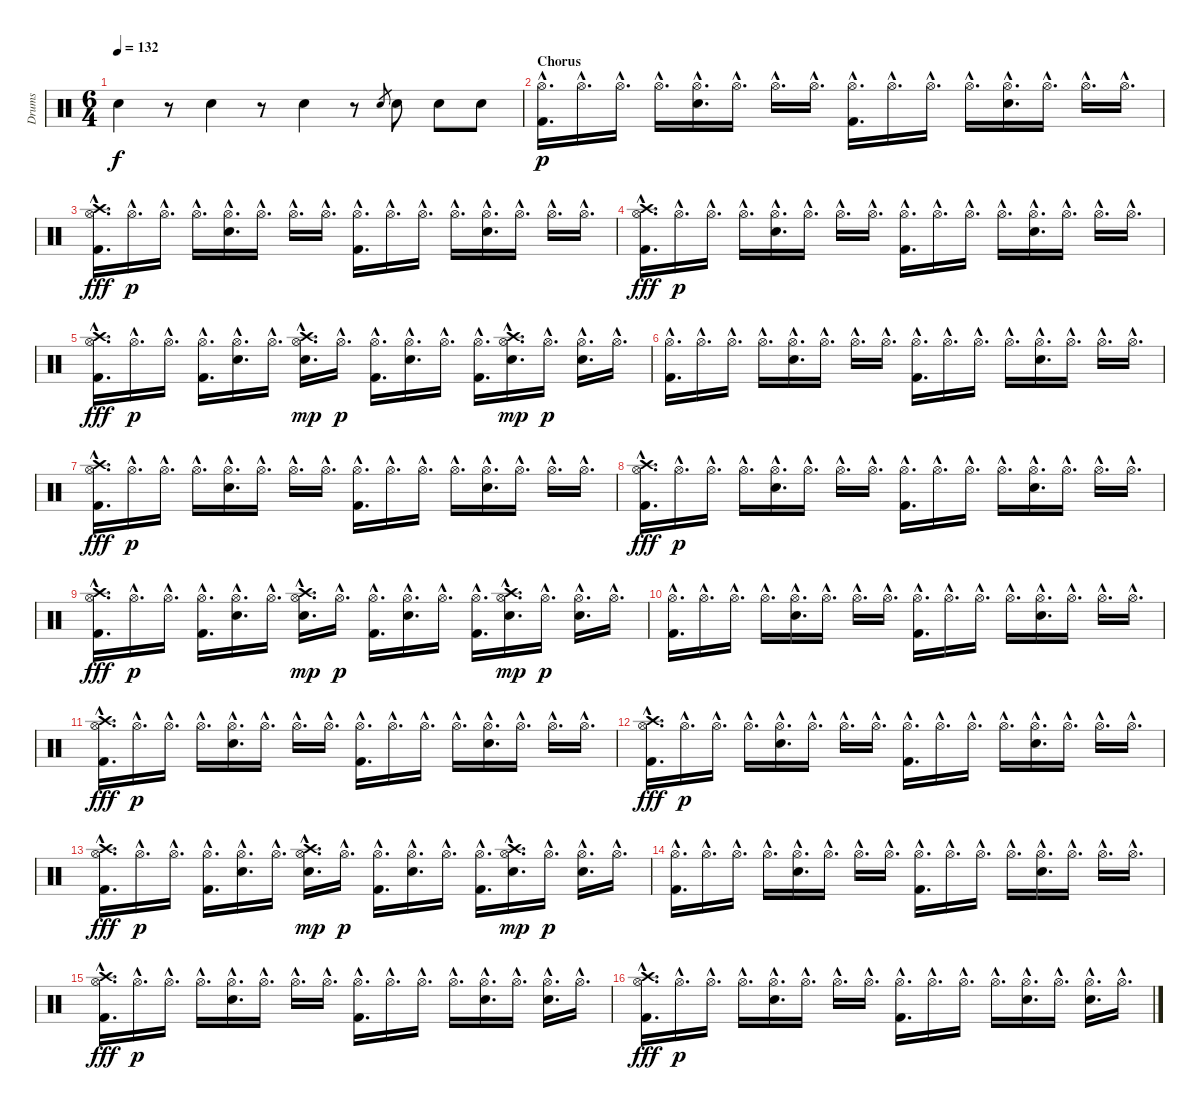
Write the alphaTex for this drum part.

\track ("Drums" "Drums") {instrument percussion}
\staff {score}
\articulation defaults
\ts (6 4)
\tempo 132
\clef neutral
\ks c "Electric Snare (hit)".4{dy f}
r.8 "Electric Snare (hit)".4 r.8 "Electric Snare (hit)".4 r.8 "Electric Snare (hit)".8{gr} "Electric Snare (hit)".8 "Snare (hit) 2".8 "Electric Snare (hit)".8 |
\section ("" "Chorus")
("Kick (hit) 2"{hac} "Hi-Hat (open)"{hac}).16{d dy p} "Hi-Hat (open)"{hac}.16{d} "Hi-Hat (open)"{hac}.16{d} "Hi-Hat (open)"{hac}.16{d} ("Electric Snare (hit)"{hac} "Hi-Hat (open)"{hac}).16{d} "Hi-Hat (open)"{hac}.16{d} "Hi-Hat (open)"{hac}.16{d} "Hi-Hat (open)"{hac}.16{d} ("Kick (hit) 2"{hac} "Hi-Hat (open)"{hac}).16{d} "Hi-Hat (open)"{hac}.16{d} "Hi-Hat (open)"{hac}.16{d} "Hi-Hat (open)"{hac}.16{d} ("Electric Snare (hit)"{hac} "Hi-Hat (open)"{hac}).16{d} "Hi-Hat (open)"{hac}.16{d} "Hi-Hat (open)"{hac}.16{d} "Hi-Hat (open)"{hac}.16{d} |
("Crash high (hit)"{hac} "Hi-Hat (open)"{hac} "Kick (hit) 2"{hac}).16{d dy fff} "Hi-Hat (open)"{hac}.16{d dy p} "Hi-Hat (open)"{hac}.16{d} "Hi-Hat (open)"{hac}.16{d} ("Electric Snare (hit)"{hac} "Hi-Hat (open)"{hac}).16{d} "Hi-Hat (open)"{hac}.16{d} "Hi-Hat (open)"{hac}.16{d} "Hi-Hat (open)"{hac}.16{d} ("Kick (hit) 2"{hac} "Hi-Hat (open)"{hac}).16{d} "Hi-Hat (open)"{hac}.16{d} "Hi-Hat (open)"{hac}.16{d} "Hi-Hat (open)"{hac}.16{d} ("Electric Snare (hit)"{hac} "Hi-Hat (open)"{hac}).16{d} "Hi-Hat (open)"{hac}.16{d} "Hi-Hat (open)"{hac}.16{d} "Hi-Hat (open)"{hac}.16{d} |
("Crash high (hit)"{hac} "Hi-Hat (open)"{hac} "Kick (hit) 2"{hac}).16{d dy fff} "Hi-Hat (open)"{hac}.16{d dy p} "Hi-Hat (open)"{hac}.16{d} "Hi-Hat (open)"{hac}.16{d} ("Electric Snare (hit)"{hac} "Hi-Hat (open)"{hac}).16{d} "Hi-Hat (open)"{hac}.16{d} "Hi-Hat (open)"{hac}.16{d} "Hi-Hat (open)"{hac}.16{d} ("Kick (hit) 2"{hac} "Hi-Hat (open)"{hac}).16{d} "Hi-Hat (open)"{hac}.16{d} "Hi-Hat (open)"{hac}.16{d} "Hi-Hat (open)"{hac}.16{d} ("Electric Snare (hit)"{hac} "Hi-Hat (open)"{hac}).16{d} "Hi-Hat (open)"{hac}.16{d} "Hi-Hat (open)"{hac}.16{d} "Hi-Hat (open)"{hac}.16{d} |
("Crash high (hit)"{hac} "Hi-Hat (open)"{hac} "Kick (hit) 2"{hac}).16{d dy fff} "Hi-Hat (open)"{hac}.16{d dy p} "Hi-Hat (open)"{hac}.16{d} ("Kick (hit) 2"{hac} "Hi-Hat (open)"{hac}).16{d} ("Electric Snare (hit)"{hac} "Hi-Hat (open)"{hac}).16{d} "Hi-Hat (open)"{hac}.16{d} ("Electric Snare (hit)"{hac} "Hi-Hat (open)"{hac} "Crash high (hit)"{hac}).16{d dy mp} "Hi-Hat (open)"{hac}.16{d dy p} ("Kick (hit) 2"{hac} "Hi-Hat (open)"{hac}).16{d} ("Electric Snare (hit)"{hac} "Hi-Hat (open)"{hac}).16{d} "Hi-Hat (open)"{hac}.16{d} ("Kick (hit) 2"{hac} "Hi-Hat (open)"{hac}).16{d} ("Electric Snare (hit)"{hac} "Hi-Hat (open)"{hac} "Crash high (hit)"{hac}).16{d dy mp} "Hi-Hat (open)"{hac}.16{d dy p} ("Electric Snare (hit)"{hac} "Hi-Hat (open)"{hac}).16{d} "Hi-Hat (open)"{hac}.16{d} |
("Kick (hit) 2"{hac} "Hi-Hat (open)"{hac}).16{d} "Hi-Hat (open)"{hac}.16{d} "Hi-Hat (open)"{hac}.16{d} "Hi-Hat (open)"{hac}.16{d} ("Electric Snare (hit)"{hac} "Hi-Hat (open)"{hac}).16{d} "Hi-Hat (open)"{hac}.16{d} "Hi-Hat (open)"{hac}.16{d} "Hi-Hat (open)"{hac}.16{d} ("Kick (hit) 2"{hac} "Hi-Hat (open)"{hac}).16{d} "Hi-Hat (open)"{hac}.16{d} "Hi-Hat (open)"{hac}.16{d} "Hi-Hat (open)"{hac}.16{d} ("Electric Snare (hit)"{hac} "Hi-Hat (open)"{hac}).16{d} "Hi-Hat (open)"{hac}.16{d} "Hi-Hat (open)"{hac}.16{d} "Hi-Hat (open)"{hac}.16{d} |
("Crash high (hit)"{hac} "Hi-Hat (open)"{hac} "Kick (hit) 2"{hac}).16{d dy fff} "Hi-Hat (open)"{hac}.16{d dy p} "Hi-Hat (open)"{hac}.16{d} "Hi-Hat (open)"{hac}.16{d} ("Electric Snare (hit)"{hac} "Hi-Hat (open)"{hac}).16{d} "Hi-Hat (open)"{hac}.16{d} "Hi-Hat (open)"{hac}.16{d} "Hi-Hat (open)"{hac}.16{d} ("Kick (hit) 2"{hac} "Hi-Hat (open)"{hac}).16{d} "Hi-Hat (open)"{hac}.16{d} "Hi-Hat (open)"{hac}.16{d} "Hi-Hat (open)"{hac}.16{d} ("Electric Snare (hit)"{hac} "Hi-Hat (open)"{hac}).16{d} "Hi-Hat (open)"{hac}.16{d} "Hi-Hat (open)"{hac}.16{d} "Hi-Hat (open)"{hac}.16{d} |
("Crash high (hit)"{hac} "Hi-Hat (open)"{hac} "Kick (hit) 2"{hac}).16{d dy fff} "Hi-Hat (open)"{hac}.16{d dy p} "Hi-Hat (open)"{hac}.16{d} "Hi-Hat (open)"{hac}.16{d} ("Electric Snare (hit)"{hac} "Hi-Hat (open)"{hac}).16{d} "Hi-Hat (open)"{hac}.16{d} "Hi-Hat (open)"{hac}.16{d} "Hi-Hat (open)"{hac}.16{d} ("Kick (hit) 2"{hac} "Hi-Hat (open)"{hac}).16{d} "Hi-Hat (open)"{hac}.16{d} "Hi-Hat (open)"{hac}.16{d} "Hi-Hat (open)"{hac}.16{d} ("Electric Snare (hit)"{hac} "Hi-Hat (open)"{hac}).16{d} "Hi-Hat (open)"{hac}.16{d} "Hi-Hat (open)"{hac}.16{d} "Hi-Hat (open)"{hac}.16{d} |
("Crash high (hit)"{hac} "Hi-Hat (open)"{hac} "Kick (hit) 2"{hac}).16{d dy fff} "Hi-Hat (open)"{hac}.16{d dy p} "Hi-Hat (open)"{hac}.16{d} ("Kick (hit) 2"{hac} "Hi-Hat (open)"{hac}).16{d} ("Electric Snare (hit)"{hac} "Hi-Hat (open)"{hac}).16{d} "Hi-Hat (open)"{hac}.16{d} ("Electric Snare (hit)"{hac} "Hi-Hat (open)"{hac} "Crash high (hit)"{hac}).16{d dy mp} "Hi-Hat (open)"{hac}.16{d dy p} ("Kick (hit) 2"{hac} "Hi-Hat (open)"{hac}).16{d} ("Electric Snare (hit)"{hac} "Hi-Hat (open)"{hac}).16{d} "Hi-Hat (open)"{hac}.16{d} ("Kick (hit) 2"{hac} "Hi-Hat (open)"{hac}).16{d} ("Electric Snare (hit)"{hac} "Hi-Hat (open)"{hac} "Crash high (hit)"{hac}).16{d dy mp} "Hi-Hat (open)"{hac}.16{d dy p} ("Electric Snare (hit)"{hac} "Hi-Hat (open)"{hac}).16{d} "Hi-Hat (open)"{hac}.16{d} |
("Kick (hit) 2"{hac} "Hi-Hat (open)"{hac}).16{d} "Hi-Hat (open)"{hac}.16{d} "Hi-Hat (open)"{hac}.16{d} "Hi-Hat (open)"{hac}.16{d} ("Electric Snare (hit)"{hac} "Hi-Hat (open)"{hac}).16{d} "Hi-Hat (open)"{hac}.16{d} "Hi-Hat (open)"{hac}.16{d} "Hi-Hat (open)"{hac}.16{d} ("Kick (hit) 2"{hac} "Hi-Hat (open)"{hac}).16{d} "Hi-Hat (open)"{hac}.16{d} "Hi-Hat (open)"{hac}.16{d} "Hi-Hat (open)"{hac}.16{d} ("Electric Snare (hit)"{hac} "Hi-Hat (open)"{hac}).16{d} "Hi-Hat (open)"{hac}.16{d} "Hi-Hat (open)"{hac}.16{d} "Hi-Hat (open)"{hac}.16{d} |
("Crash high (hit)"{hac} "Hi-Hat (open)"{hac} "Kick (hit) 2"{hac}).16{d dy fff} "Hi-Hat (open)"{hac}.16{d dy p} "Hi-Hat (open)"{hac}.16{d} "Hi-Hat (open)"{hac}.16{d} ("Electric Snare (hit)"{hac} "Hi-Hat (open)"{hac}).16{d} "Hi-Hat (open)"{hac}.16{d} "Hi-Hat (open)"{hac}.16{d} "Hi-Hat (open)"{hac}.16{d} ("Kick (hit) 2"{hac} "Hi-Hat (open)"{hac}).16{d} "Hi-Hat (open)"{hac}.16{d} "Hi-Hat (open)"{hac}.16{d} "Hi-Hat (open)"{hac}.16{d} ("Electric Snare (hit)"{hac} "Hi-Hat (open)"{hac}).16{d} "Hi-Hat (open)"{hac}.16{d} "Hi-Hat (open)"{hac}.16{d} "Hi-Hat (open)"{hac}.16{d} |
("Crash high (hit)"{hac} "Hi-Hat (open)"{hac} "Kick (hit) 2"{hac}).16{d dy fff} "Hi-Hat (open)"{hac}.16{d dy p} "Hi-Hat (open)"{hac}.16{d} "Hi-Hat (open)"{hac}.16{d} ("Electric Snare (hit)"{hac} "Hi-Hat (open)"{hac}).16{d} "Hi-Hat (open)"{hac}.16{d} "Hi-Hat (open)"{hac}.16{d} "Hi-Hat (open)"{hac}.16{d} ("Kick (hit) 2"{hac} "Hi-Hat (open)"{hac}).16{d} "Hi-Hat (open)"{hac}.16{d} "Hi-Hat (open)"{hac}.16{d} "Hi-Hat (open)"{hac}.16{d} ("Electric Snare (hit)"{hac} "Hi-Hat (open)"{hac}).16{d} "Hi-Hat (open)"{hac}.16{d} "Hi-Hat (open)"{hac}.16{d} "Hi-Hat (open)"{hac}.16{d} |
("Crash high (hit)"{hac} "Hi-Hat (open)"{hac} "Kick (hit) 2"{hac}).16{d dy fff} "Hi-Hat (open)"{hac}.16{d dy p} "Hi-Hat (open)"{hac}.16{d} ("Kick (hit) 2"{hac} "Hi-Hat (open)"{hac}).16{d} ("Electric Snare (hit)"{hac} "Hi-Hat (open)"{hac}).16{d} "Hi-Hat (open)"{hac}.16{d} ("Electric Snare (hit)"{hac} "Hi-Hat (open)"{hac} "Crash high (hit)"{hac}).16{d dy mp} "Hi-Hat (open)"{hac}.16{d dy p} ("Kick (hit) 2"{hac} "Hi-Hat (open)"{hac}).16{d} ("Electric Snare (hit)"{hac} "Hi-Hat (open)"{hac}).16{d} "Hi-Hat (open)"{hac}.16{d} ("Kick (hit) 2"{hac} "Hi-Hat (open)"{hac}).16{d} ("Electric Snare (hit)"{hac} "Hi-Hat (open)"{hac} "Crash high (hit)"{hac}).16{d dy mp} "Hi-Hat (open)"{hac}.16{d dy p} ("Electric Snare (hit)"{hac} "Hi-Hat (open)"{hac}).16{d} "Hi-Hat (open)"{hac}.16{d} |
("Kick (hit) 2"{hac} "Hi-Hat (open)"{hac}).16{d} "Hi-Hat (open)"{hac}.16{d} "Hi-Hat (open)"{hac}.16{d} "Hi-Hat (open)"{hac}.16{d} ("Electric Snare (hit)"{hac} "Hi-Hat (open)"{hac}).16{d} "Hi-Hat (open)"{hac}.16{d} "Hi-Hat (open)"{hac}.16{d} "Hi-Hat (open)"{hac}.16{d} ("Kick (hit) 2"{hac} "Hi-Hat (open)"{hac}).16{d} "Hi-Hat (open)"{hac}.16{d} "Hi-Hat (open)"{hac}.16{d} "Hi-Hat (open)"{hac}.16{d} ("Electric Snare (hit)"{hac} "Hi-Hat (open)"{hac}).16{d} "Hi-Hat (open)"{hac}.16{d} "Hi-Hat (open)"{hac}.16{d} "Hi-Hat (open)"{hac}.16{d} |
("Crash high (hit)"{hac} "Hi-Hat (open)"{hac} "Kick (hit) 2"{hac}).16{d dy fff} "Hi-Hat (open)"{hac}.16{d dy p} "Hi-Hat (open)"{hac}.16{d} "Hi-Hat (open)"{hac}.16{d} ("Electric Snare (hit)"{hac} "Hi-Hat (open)"{hac}).16{d} "Hi-Hat (open)"{hac}.16{d} "Hi-Hat (open)"{hac}.16{d} "Hi-Hat (open)"{hac}.16{d} ("Kick (hit) 2"{hac} "Hi-Hat (open)"{hac}).16{d} "Hi-Hat (open)"{hac}.16{d} "Hi-Hat (open)"{hac}.16{d} "Hi-Hat (open)"{hac}.16{d} ("Electric Snare (hit)"{hac} "Hi-Hat (open)"{hac}).16{d} "Hi-Hat (open)"{hac}.16{d} ("Electric Snare (hit)"{hac} "Hi-Hat (open)"{hac}).16{d} "Hi-Hat (open)"{hac}.16{d} |
("Crash high (hit)"{hac} "Hi-Hat (open)"{hac} "Kick (hit) 2"{hac}).16{d dy fff} "Hi-Hat (open)"{hac}.16{d dy p} "Hi-Hat (open)"{hac}.16{d} "Hi-Hat (open)"{hac}.16{d} ("Electric Snare (hit)"{hac} "Hi-Hat (open)"{hac}).16{d} "Hi-Hat (open)"{hac}.16{d} "Hi-Hat (open)"{hac}.16{d} "Hi-Hat (open)"{hac}.16{d} ("Kick (hit) 2"{hac} "Hi-Hat (open)"{hac}).16{d} "Hi-Hat (open)"{hac}.16{d} "Hi-Hat (open)"{hac}.16{d} "Hi-Hat (open)"{hac}.16{d} ("Electric Snare (hit)"{hac} "Hi-Hat (open)"{hac}).16{d} "Hi-Hat (open)"{hac}.16{d} ("Electric Snare (hit)"{hac} "Hi-Hat (open)"{hac}).16{d} "Hi-Hat (open)"{hac}.16{d}
